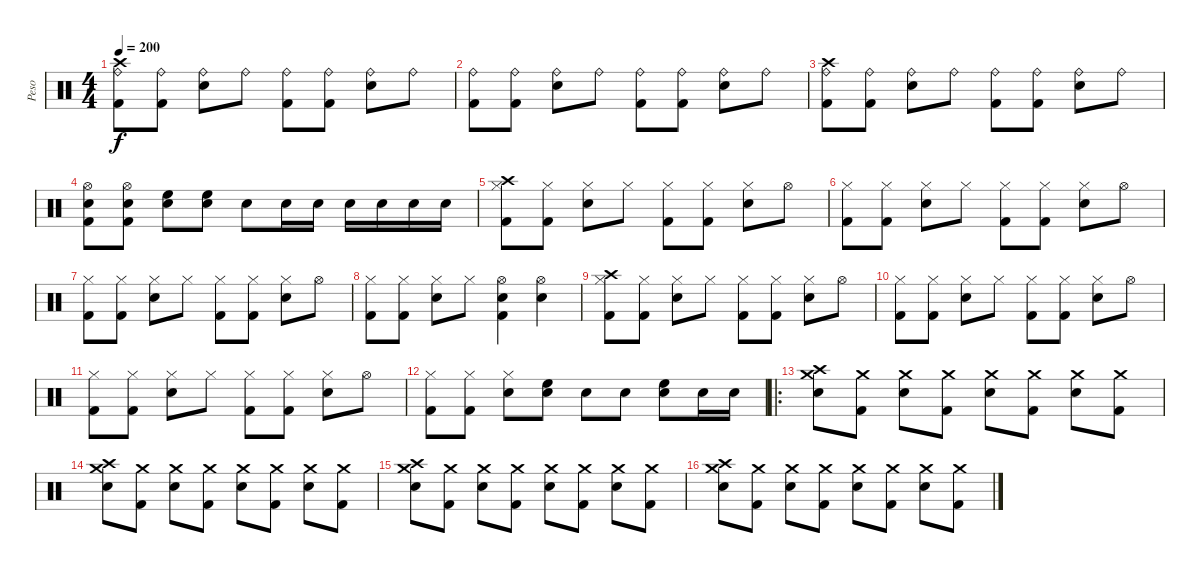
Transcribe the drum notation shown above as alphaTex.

\track ("Peso" "Peso") {instrument percussion}
\staff {score}
\articulation defaults
\ts (4 4)
\tempo 200
\clef neutral
\ks c
("Crash high (hit)" "Ride (bell)" "Kick (hit) 2").8{dy f} ("Ride (bell)" "Kick (hit) 2").8 ("Ride (bell)" "Snare (hit) 2").8 "Ride (bell)".8 ("Ride (bell)" "Kick (hit) 2").8 ("Ride (bell)" "Kick (hit) 2").8 ("Ride (bell)" "Snare (hit) 2").8 "Ride (bell)".8 |
("Ride (bell)" "Kick (hit) 2").8 ("Ride (bell)" "Kick (hit) 2").8 ("Ride (bell)" "Snare (hit) 2").8 "Ride (bell)".8 ("Ride (bell)" "Kick (hit) 2").8 ("Ride (bell)" "Kick (hit) 2").8 ("Ride (bell)" "Snare (hit) 2").8 "Ride (bell)".8 |
("Crash high (hit)" "Ride (bell)" "Kick (hit) 2").8 ("Ride (bell)" "Kick (hit) 2").8 ("Ride (bell)" "Snare (hit) 2").8 "Ride (bell)".8 ("Ride (bell)" "Kick (hit) 2").8 ("Ride (bell)" "Kick (hit) 2").8 ("Ride (bell)" "Snare (hit) 2").8 "Ride (bell)".8 |
("Hi-Hat (open)" "Snare (hit) 2" "Kick (hit) 2").8 ("Hi-Hat (open)" "Snare (hit) 2" "Kick (hit) 2").8 ("Snare (hit) 2" "High Floor Tom (hit)").8 ("Snare (hit) 2" "High Floor Tom (hit)").8 "Snare (hit) 2".8 "Snare (hit) 2".16 "Snare (hit) 2".16 "Snare (hit) 2".16 "Snare (hit) 2".16 "Snare (hit) 2".16 "Snare (hit) 2".16 |
("Crash high (hit)" "Hi-Hat (closed)" "Kick (hit) 2").8 ("Hi-Hat (closed)" "Kick (hit) 2").8 ("Hi-Hat (closed)" "Snare (hit) 2").8 "Hi-Hat (closed)".8 ("Hi-Hat (closed)" "Kick (hit) 2").8 ("Hi-Hat (closed)" "Kick (hit) 2").8 ("Hi-Hat (closed)" "Snare (hit) 2").8 "Hi-Hat (open)".8 |
("Hi-Hat (closed)" "Kick (hit) 2").8 ("Hi-Hat (closed)" "Kick (hit) 2").8 ("Hi-Hat (closed)" "Snare (hit) 2").8 "Hi-Hat (closed)".8 ("Hi-Hat (closed)" "Kick (hit) 2").8 ("Hi-Hat (closed)" "Kick (hit) 2").8 ("Hi-Hat (closed)" "Snare (hit) 2").8 "Hi-Hat (open)".8 |
("Hi-Hat (closed)" "Kick (hit) 2").8 ("Hi-Hat (closed)" "Kick (hit) 2").8 ("Hi-Hat (closed)" "Snare (hit) 2").8 "Hi-Hat (closed)".8 ("Hi-Hat (closed)" "Kick (hit) 2").8 ("Hi-Hat (closed)" "Kick (hit) 2").8 ("Hi-Hat (closed)" "Snare (hit) 2").8 "Hi-Hat (open)".8 |
("Hi-Hat (closed)" "Kick (hit) 2").8 ("Hi-Hat (closed)" "Kick (hit) 2").8 ("Hi-Hat (closed)" "Snare (hit) 2").8 "Hi-Hat (closed)".8 ("Hi-Hat (open)" "Snare (hit) 2" "Kick (hit) 2").4 ("Hi-Hat (open)" "Snare (hit) 2").4 |
("Crash high (hit)" "Hi-Hat (closed)" "Kick (hit) 2").8 ("Hi-Hat (closed)" "Kick (hit) 2").8 ("Hi-Hat (closed)" "Snare (hit) 2").8 "Hi-Hat (closed)".8 ("Hi-Hat (closed)" "Kick (hit) 2").8 ("Hi-Hat (closed)" "Kick (hit) 2").8 ("Hi-Hat (closed)" "Snare (hit) 2").8 "Hi-Hat (open)".8 |
("Hi-Hat (closed)" "Kick (hit) 2").8 ("Hi-Hat (closed)" "Kick (hit) 2").8 ("Hi-Hat (closed)" "Snare (hit) 2").8 "Hi-Hat (closed)".8 ("Hi-Hat (closed)" "Kick (hit) 2").8 ("Hi-Hat (closed)" "Kick (hit) 2").8 ("Hi-Hat (closed)" "Snare (hit) 2").8 "Hi-Hat (open)".8 |
("Hi-Hat (closed)" "Kick (hit) 2").8 ("Hi-Hat (closed)" "Kick (hit) 2").8 ("Hi-Hat (closed)" "Snare (hit) 2").8 "Hi-Hat (closed)".8 ("Hi-Hat (closed)" "Kick (hit) 2").8 ("Hi-Hat (closed)" "Kick (hit) 2").8 ("Hi-Hat (closed)" "Snare (hit) 2").8 "Hi-Hat (open)".8 |
("Hi-Hat (closed)" "Kick (hit) 2").8 ("Hi-Hat (closed)" "Kick (hit) 2").8 ("Hi-Hat (closed)" "Snare (hit) 2").8 ("Snare (hit) 2" "High Floor Tom (hit)").8 "Snare (hit) 2".8 "Snare (hit) 2".8 ("Snare (hit) 2" "High Floor Tom (hit)").8 "Snare (hit) 2".16 "Snare (hit) 2".16 |
\ro
("Crash high (hit)" "Crash medium (hit)" "Snare (hit) 2").8 ("Crash medium (hit)"{x} "Kick (hit) 2").8 ("Crash medium (hit)" "Snare (hit) 2").8 ("Crash medium (hit)"{x} "Kick (hit) 2").8 ("Crash medium (hit)" "Snare (hit) 2").8 ("Crash medium (hit)"{x} "Kick (hit) 2").8 ("Crash medium (hit)" "Snare (hit) 2").8 ("Crash medium (hit)"{x} "Kick (hit) 2").8 |
("Crash high (hit)" "Crash medium (hit)" "Snare (hit) 2").8 ("Crash medium (hit)"{x} "Kick (hit) 2").8 ("Crash medium (hit)" "Snare (hit) 2").8 ("Crash medium (hit)"{x} "Kick (hit) 2").8 ("Crash medium (hit)" "Snare (hit) 2").8 ("Crash medium (hit)"{x} "Kick (hit) 2").8 ("Crash medium (hit)" "Snare (hit) 2").8 ("Crash medium (hit)"{x} "Kick (hit) 2").8 |
("Crash high (hit)" "Crash medium (hit)" "Snare (hit) 2").8 ("Crash medium (hit)"{x} "Kick (hit) 2").8 ("Crash medium (hit)" "Snare (hit) 2").8 ("Crash medium (hit)"{x} "Kick (hit) 2").8 ("Crash medium (hit)" "Snare (hit) 2").8 ("Crash medium (hit)"{x} "Kick (hit) 2").8 ("Crash medium (hit)" "Snare (hit) 2").8 ("Crash medium (hit)"{x} "Kick (hit) 2").8 |
("Crash high (hit)" "Crash medium (hit)" "Snare (hit) 2").8 ("Crash medium (hit)"{x} "Kick (hit) 2").8 ("Crash medium (hit)" "Snare (hit) 2").8 ("Crash medium (hit)"{x} "Kick (hit) 2").8 ("Crash medium (hit)" "Snare (hit) 2").8 ("Crash medium (hit)"{x} "Kick (hit) 2").8 ("Crash medium (hit)" "Snare (hit) 2").8 ("Crash medium (hit)"{x} "Kick (hit) 2").8
